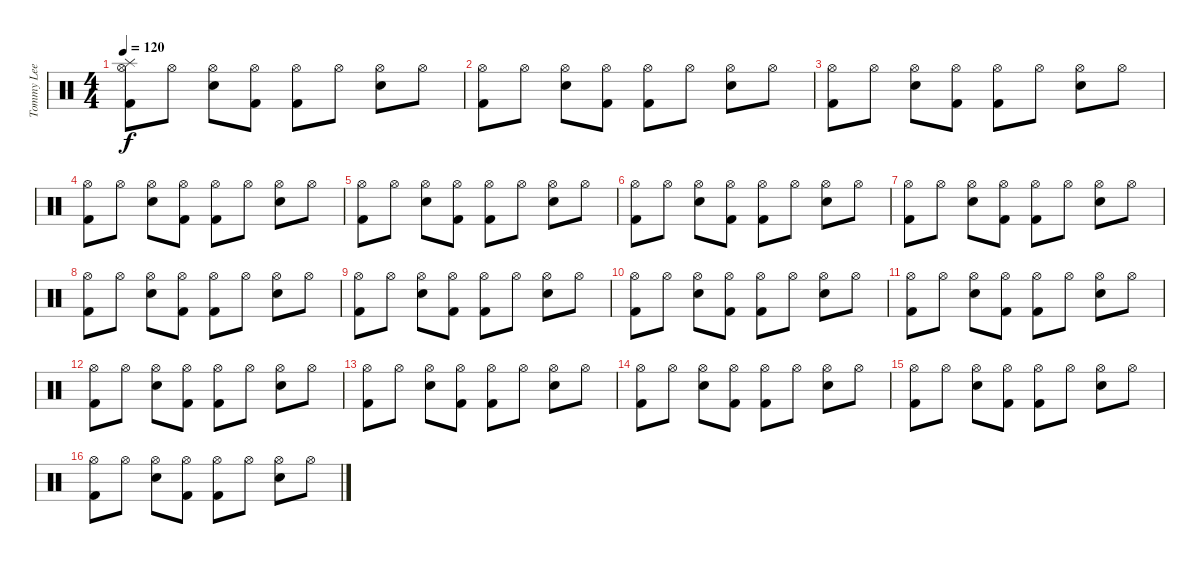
\track ("Tommy Lee" "Tommy Lee") {instrument percussion}
\staff {score}
\articulation defaults
\ts (4 4)
\tempo 120
\clef neutral
\ks c
("Splash (hit)" "Hi-Hat (open)" "Kick (hit) 2").8{dy f} "Hi-Hat (open)".8 ("Hi-Hat (open)" "Electric Snare (hit)").8 ("Hi-Hat (open)" "Kick (hit) 2").8 ("Hi-Hat (open)" "Kick (hit) 2").8 "Hi-Hat (open)".8 ("Hi-Hat (open)" "Electric Snare (hit)").8 "Hi-Hat (open)".8 |
("Hi-Hat (open)" "Kick (hit) 2").8 "Hi-Hat (open)".8 ("Hi-Hat (open)" "Electric Snare (hit)").8 ("Hi-Hat (open)" "Kick (hit) 2").8 ("Hi-Hat (open)" "Kick (hit) 2").8 "Hi-Hat (open)".8 ("Hi-Hat (open)" "Electric Snare (hit)").8 "Hi-Hat (open)".8 |
("Hi-Hat (open)" "Kick (hit) 2").8 "Hi-Hat (open)".8 ("Hi-Hat (open)" "Electric Snare (hit)").8 ("Hi-Hat (open)" "Kick (hit) 2").8 ("Hi-Hat (open)" "Kick (hit) 2").8 "Hi-Hat (open)".8 ("Hi-Hat (open)" "Electric Snare (hit)").8 "Hi-Hat (open)".8 |
("Hi-Hat (open)" "Kick (hit) 2").8 "Hi-Hat (open)".8 ("Hi-Hat (open)" "Electric Snare (hit)").8 ("Hi-Hat (open)" "Kick (hit) 2").8 ("Hi-Hat (open)" "Kick (hit) 2").8 "Hi-Hat (open)".8 ("Hi-Hat (open)" "Electric Snare (hit)").8 "Hi-Hat (open)".8 |
("Hi-Hat (open)" "Kick (hit) 2").8 "Hi-Hat (open)".8 ("Hi-Hat (open)" "Electric Snare (hit)").8 ("Hi-Hat (open)" "Kick (hit) 2").8 ("Hi-Hat (open)" "Kick (hit) 2").8 "Hi-Hat (open)".8 ("Hi-Hat (open)" "Electric Snare (hit)").8 "Hi-Hat (open)".8 |
("Hi-Hat (open)" "Kick (hit) 2").8 "Hi-Hat (open)".8 ("Hi-Hat (open)" "Electric Snare (hit)").8 ("Hi-Hat (open)" "Kick (hit) 2").8 ("Hi-Hat (open)" "Kick (hit) 2").8 "Hi-Hat (open)".8 ("Hi-Hat (open)" "Electric Snare (hit)").8 "Hi-Hat (open)".8 |
("Hi-Hat (open)" "Kick (hit) 2").8 "Hi-Hat (open)".8 ("Hi-Hat (open)" "Electric Snare (hit)").8 ("Hi-Hat (open)" "Kick (hit) 2").8 ("Hi-Hat (open)" "Kick (hit) 2").8 "Hi-Hat (open)".8 ("Hi-Hat (open)" "Electric Snare (hit)").8 "Hi-Hat (open)".8 |
("Hi-Hat (open)" "Kick (hit) 2").8 "Hi-Hat (open)".8 ("Hi-Hat (open)" "Electric Snare (hit)").8 ("Hi-Hat (open)" "Kick (hit) 2").8 ("Hi-Hat (open)" "Kick (hit) 2").8 "Hi-Hat (open)".8 ("Hi-Hat (open)" "Electric Snare (hit)").8 "Hi-Hat (open)".8 |
("Hi-Hat (open)" "Kick (hit) 2").8 "Hi-Hat (open)".8 ("Hi-Hat (open)" "Electric Snare (hit)").8 ("Hi-Hat (open)" "Kick (hit) 2").8 ("Hi-Hat (open)" "Kick (hit) 2").8 "Hi-Hat (open)".8 ("Hi-Hat (open)" "Electric Snare (hit)").8 "Hi-Hat (open)".8 |
("Hi-Hat (open)" "Kick (hit) 2").8 "Hi-Hat (open)".8 ("Hi-Hat (open)" "Electric Snare (hit)").8 ("Hi-Hat (open)" "Kick (hit) 2").8 ("Hi-Hat (open)" "Kick (hit) 2").8 "Hi-Hat (open)".8 ("Hi-Hat (open)" "Electric Snare (hit)").8 "Hi-Hat (open)".8 |
("Hi-Hat (open)" "Kick (hit) 2").8 "Hi-Hat (open)".8 ("Hi-Hat (open)" "Electric Snare (hit)").8 ("Hi-Hat (open)" "Kick (hit) 2").8 ("Hi-Hat (open)" "Kick (hit) 2").8 "Hi-Hat (open)".8 ("Hi-Hat (open)" "Electric Snare (hit)").8 "Hi-Hat (open)".8 |
("Hi-Hat (open)" "Kick (hit) 2").8 "Hi-Hat (open)".8 ("Hi-Hat (open)" "Electric Snare (hit)").8 ("Hi-Hat (open)" "Kick (hit) 2").8 ("Hi-Hat (open)" "Kick (hit) 2").8 "Hi-Hat (open)".8 ("Hi-Hat (open)" "Electric Snare (hit)").8 "Hi-Hat (open)".8 |
("Hi-Hat (open)" "Kick (hit) 2").8 "Hi-Hat (open)".8 ("Hi-Hat (open)" "Electric Snare (hit)").8 ("Hi-Hat (open)" "Kick (hit) 2").8 ("Hi-Hat (open)" "Kick (hit) 2").8 "Hi-Hat (open)".8 ("Hi-Hat (open)" "Electric Snare (hit)").8 "Hi-Hat (open)".8 |
("Hi-Hat (open)" "Kick (hit) 2").8 "Hi-Hat (open)".8 ("Hi-Hat (open)" "Electric Snare (hit)").8 ("Hi-Hat (open)" "Kick (hit) 2").8 ("Hi-Hat (open)" "Kick (hit) 2").8 "Hi-Hat (open)".8 ("Hi-Hat (open)" "Electric Snare (hit)").8 "Hi-Hat (open)".8 |
("Hi-Hat (open)" "Kick (hit) 2").8 "Hi-Hat (open)".8 ("Hi-Hat (open)" "Electric Snare (hit)").8 ("Hi-Hat (open)" "Kick (hit) 2").8 ("Hi-Hat (open)" "Kick (hit) 2").8 "Hi-Hat (open)".8 ("Hi-Hat (open)" "Electric Snare (hit)").8 "Hi-Hat (open)".8 |
("Hi-Hat (open)" "Kick (hit) 2").8 "Hi-Hat (open)".8 ("Hi-Hat (open)" "Electric Snare (hit)").8 ("Hi-Hat (open)" "Kick (hit) 2").8 ("Hi-Hat (open)" "Kick (hit) 2").8 "Hi-Hat (open)".8 ("Hi-Hat (open)" "Electric Snare (hit)").8 "Hi-Hat (open)".8
